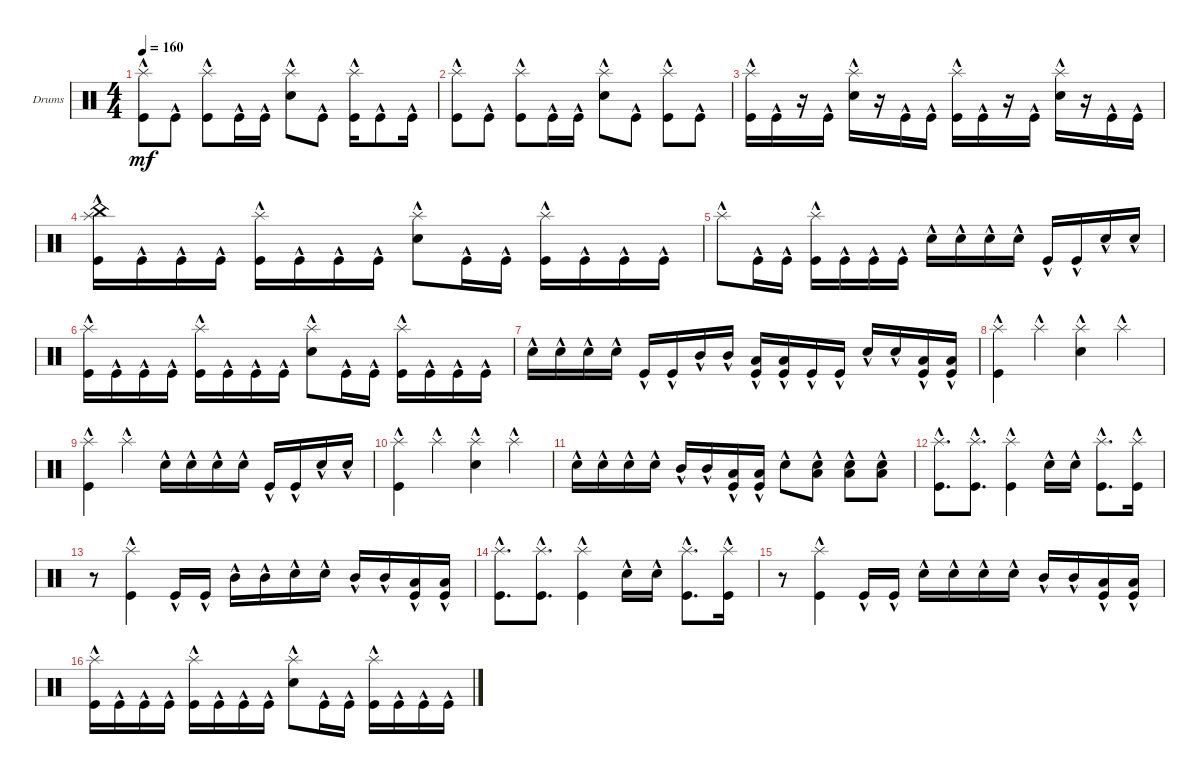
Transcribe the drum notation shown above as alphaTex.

\defaultSystemsLayout 4
\bracketExtendMode groupsimilarinstruments
\firstSystemTrackNameOrientation horizontal
\otherSystemsTrackNameOrientation horizontal
\track ("Drums" "Drums") {instrument percussion}
\staff {score}
\articulation defaults
\ts (4 4)
\tempo 160
\clef neutral
\ks c
("Kick (hit)"{hac} "Splash (hit)"{hac}).8{dy mf} "Kick (hit)"{hac}.8 ("Kick (hit)"{hac} "Splash (hit)"{hac}).8 "Kick (hit)"{hac}.16 "Kick (hit)"{hac}.16 ("Snare (hit) 2"{hac} "Splash (hit)"{hac}).8 "Kick (hit)"{hac}.8 ("Kick (hit)"{hac} "Splash (hit)"{hac}).16 "Kick (hit)"{hac}.8 "Kick (hit)"{hac}.16 |
("Kick (hit)"{hac} "Splash (hit)"{hac}).8 "Kick (hit)"{hac}.8 ("Kick (hit)"{hac} "Splash (hit)"{hac}).8 "Kick (hit)"{hac}.16 "Kick (hit)"{hac}.16 ("Snare (hit) 2"{hac} "Splash (hit)"{hac}).8 "Kick (hit)"{hac}.8 ("Kick (hit)"{hac} "Splash (hit)"{hac}).8 "Kick (hit)"{hac}.8 |
("Kick (hit)"{hac} "Splash (hit)"{hac}).16 "Kick (hit)"{hac}.16 r.16 "Kick (hit)"{hac}.16 ("Snare (hit) 2"{hac} "Splash (hit)"{hac}).16 r.16 "Kick (hit)"{hac}.16 "Kick (hit)"{hac}.16 ("Kick (hit)"{hac} "Splash (hit)"{hac}).16 "Kick (hit)"{hac}.16 r.16 "Kick (hit)"{hac}.16 ("Snare (hit) 2"{hac} "Splash (hit)"{hac}).16 r.16 "Kick (hit)"{hac}.16 "Kick (hit)"{hac}.16 |
("Kick (hit)"{hac} "Splash (hit)"{hac} "China (hit)"{hac}).16 "Kick (hit)"{hac}.16 "Kick (hit)"{hac}.16 "Kick (hit)"{hac}.16 ("Kick (hit)"{hac} "Splash (hit)"{hac}).16 "Kick (hit)"{hac}.16 "Kick (hit)"{hac}.16 "Kick (hit)"{hac}.16 ("Snare (hit) 2"{hac} "Splash (hit)"{hac}).8 "Kick (hit)"{hac}.16 "Kick (hit)"{hac}.16 ("Kick (hit)"{hac} "Splash (hit)"{hac}).16 "Kick (hit)"{hac}.16 "Kick (hit)"{hac}.16 "Kick (hit)"{hac}.16 |
"Splash (hit)"{hac}.8 "Kick (hit)"{hac}.16 "Kick (hit)"{hac}.16 ("Kick (hit)"{hac} "Splash (hit)"{hac}).16 "Kick (hit)"{hac}.16 "Kick (hit)"{hac}.16 "Kick (hit)"{hac}.16 "Snare (hit) 2"{hac}.16 "Snare (hit) 2"{hac}.16 "Snare (hit) 2"{hac}.16 "Snare (hit) 2"{hac}.16 "Kick (hit)"{hac}.16 "Kick (hit)"{hac}.16 "Snare (hit) 2"{hac}.16 "Snare (hit) 2"{hac}.16 |
("Kick (hit)"{hac} "Splash (hit)"{hac}).16 "Kick (hit)"{hac}.16 "Kick (hit)"{hac}.16 "Kick (hit)"{hac}.16 ("Kick (hit)"{hac} "Splash (hit)"{hac}).16 "Kick (hit)"{hac}.16 "Kick (hit)"{hac}.16 "Kick (hit)"{hac}.16 ("Snare (hit) 2"{hac} "Splash (hit)"{hac}).8 "Kick (hit)"{hac}.16 "Kick (hit)"{hac}.16 ("Kick (hit)"{hac} "Splash (hit)"{hac}).16 "Kick (hit)"{hac}.16 "Kick (hit)"{hac}.16 "Kick (hit)"{hac}.16 |
"Snare (hit) 2"{hac}.16 "Snare (hit) 2"{hac}.16 "Snare (hit) 2"{hac}.16 "Snare (hit) 2"{hac}.16 "Kick (hit)"{hac}.16 "Kick (hit)"{hac}.16 "Mid Tom (hit)"{hac}.16 "Mid Tom (hit)"{hac}.16 ("Low Tom (hit)"{hac} "Kick (hit)").16 ("Low Tom (hit)"{hac} "Kick (hit)").16 "Kick (hit)"{hac}.16 "Kick (hit)"{hac}.16 "Snare (hit) 2"{hac}.16 "Snare (hit) 2"{hac}.16 ("Low Tom (hit)"{hac} "Kick (hit)").16 ("Low Tom (hit)"{hac} "Kick (hit)").16 |
("Kick (hit)"{hac} "Splash (hit)"{hac}).4 "Splash (hit)"{hac}.4 ("Splash (hit)"{hac} "Snare (hit) 2"{hac}).4 "Splash (hit)"{hac}.4 |
("Kick (hit)"{hac} "Splash (hit)"{hac}).4 "Splash (hit)"{hac}.4 "Snare (hit) 2"{hac}.16 "Snare (hit) 2"{hac}.16 "Snare (hit) 2"{hac}.16 "Snare (hit) 2"{hac}.16 "Kick (hit)"{hac}.16 "Kick (hit)"{hac}.16 "Snare (hit) 2"{hac}.16 "Snare (hit) 2"{hac}.16 |
("Kick (hit)"{hac} "Splash (hit)"{hac}).4 "Splash (hit)"{hac}.4 ("Splash (hit)"{hac} "Snare (hit) 2"{hac}).4 "Splash (hit)"{hac}.4 |
"Snare (hit) 2"{hac}.16 "Snare (hit) 2"{hac}.16 "Snare (hit) 2"{hac}.16 "Snare (hit) 2"{hac}.16 "Mid Tom (hit)"{hac}.16 "Mid Tom (hit)"{hac}.16 ("Low Tom (hit)"{hac} "Kick (hit)").16 ("Low Tom (hit)"{hac} "Kick (hit)").16 "Snare (hit) 2"{hac}.8 ("Snare (hit) 2"{hac} "Low Tom (hit)"{hac}).8 ("Snare (hit) 2"{hac} "Low Tom (hit)"{hac}).8 ("Snare (hit) 2"{hac} "Low Tom (hit)"{hac}).8 |
("Kick (hit)"{hac} "Splash (hit)"{hac}).8{d} ("Kick (hit)"{hac} "Splash (hit)"{hac}).8{d} ("Kick (hit)"{hac} "Splash (hit)"{hac}).4 "Snare (hit) 2"{hac}.16 "Snare (hit) 2"{hac}.16 ("Kick (hit)"{hac} "Splash (hit)"{hac}).8{d} ("Kick (hit)"{hac} "Splash (hit)"{hac}).16 |
r.8 ("Kick (hit)"{hac} "Splash (hit)"{hac}).4 "Kick (hit)"{hac}.16 "Kick (hit)"{hac}.16 "Mid Tom (hit)"{hac}.16 "Mid Tom (hit)"{hac}.16 "Snare (hit) 2"{hac}.16 "Snare (hit) 2"{hac}.16 "Mid Tom (hit)"{hac}.16 "Mid Tom (hit)"{hac}.16 ("Low Tom (hit)"{hac} "Kick (hit)").16 ("Low Tom (hit)"{hac} "Kick (hit)").16 |
("Kick (hit)"{hac} "Splash (hit)"{hac}).8{d} ("Kick (hit)"{hac} "Splash (hit)"{hac}).8{d} ("Kick (hit)"{hac} "Splash (hit)"{hac}).4 "Snare (hit) 2"{hac}.16 "Snare (hit) 2"{hac}.16 ("Kick (hit)"{hac} "Splash (hit)"{hac}).8{d} ("Kick (hit)"{hac} "Splash (hit)"{hac}).16 |
r.8 ("Kick (hit)"{hac} "Splash (hit)"{hac}).4 "Kick (hit)"{hac}.16 "Kick (hit)"{hac}.16 "Snare (hit) 2"{hac}.16 "Snare (hit) 2"{hac}.16 "Snare (hit) 2"{hac}.16 "Snare (hit) 2"{hac}.16 "Mid Tom (hit)"{hac}.16 "Mid Tom (hit)"{hac}.16 ("Low Tom (hit)"{hac} "Kick (hit)").16 ("Low Tom (hit)"{hac} "Kick (hit)").16 |
("Kick (hit)"{hac} "Splash (hit)"{hac}).16 "Kick (hit)"{hac}.16 "Kick (hit)"{hac}.16 "Kick (hit)"{hac}.16 ("Kick (hit)"{hac} "Splash (hit)"{hac}).16 "Kick (hit)"{hac}.16 "Kick (hit)"{hac}.16 "Kick (hit)"{hac}.16 ("Snare (hit) 2"{hac} "Splash (hit)"{hac}).8 "Kick (hit)"{hac}.16 "Kick (hit)"{hac}.16 ("Kick (hit)"{hac} "Splash (hit)"{hac}).16 "Kick (hit)"{hac}.16 "Kick (hit)"{hac}.16 "Kick (hit)"{hac}.16
